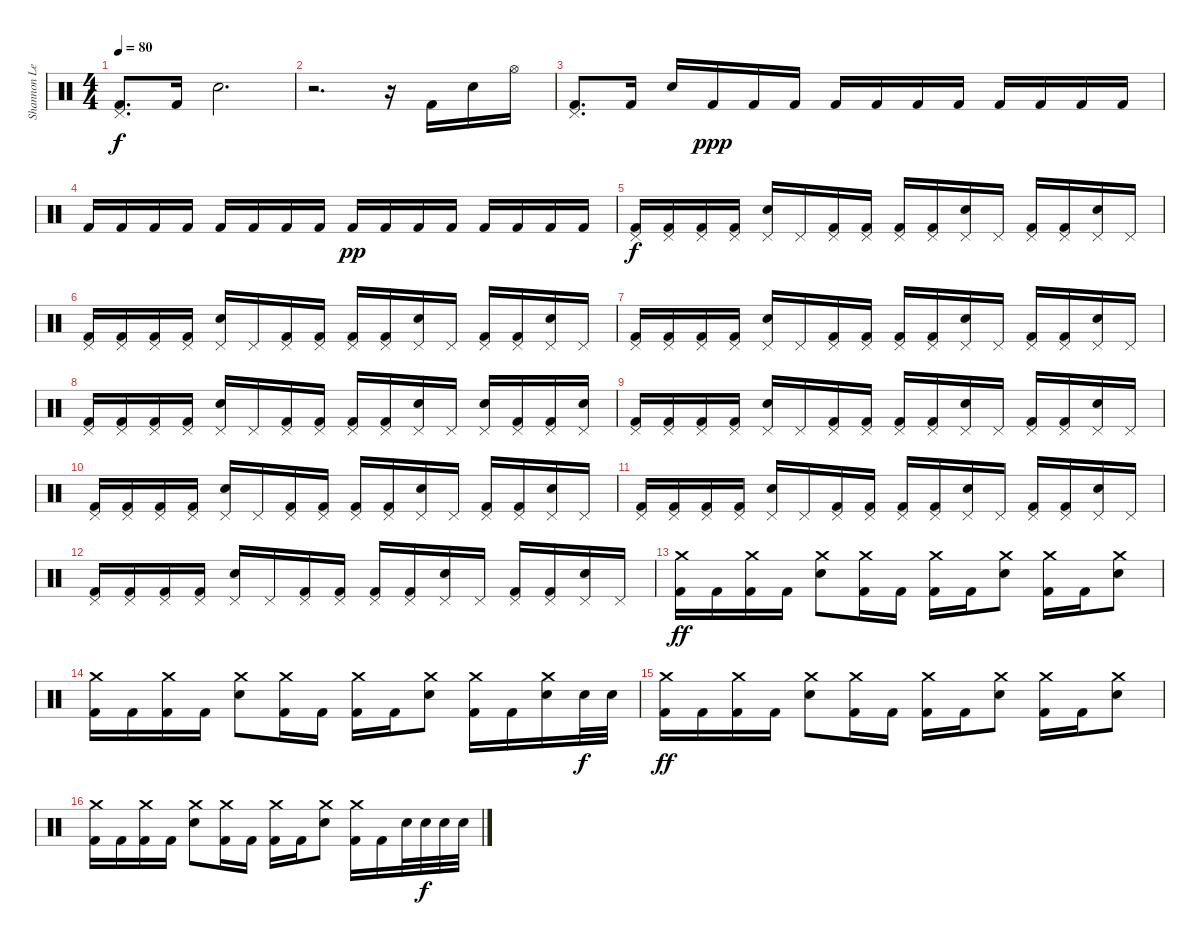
\track ("Shannon Leto - Drums" "Shannon Le") {instrument percussion}
\staff {score}
\articulation defaults
\ts (4 4)
\tempo 80
\clef neutral
\ks c
("Pedal Hi-Hat (hit)" "Kick (hit) 2").8{d dy f} "Kick (hit) 2".16 "Electric Snare (hit)".2{d} |
r.2{d} r.16 "Kick (hit) 2".16 "Electric Snare (hit)".16 "Hi-Hat (open)".16 |
("Pedal Hi-Hat (hit)" "Kick (hit) 2").8{d} "Kick (hit) 2".16 "Electric Snare (hit)".16 "Kick (hit) 2".16{dy ppp} "Kick (hit) 2".16 "Kick (hit) 2".16 "Kick (hit) 2".16 "Kick (hit) 2".16 "Kick (hit) 2".16 "Kick (hit) 2".16 "Kick (hit) 2".16 "Kick (hit) 2".16 "Kick (hit) 2".16 "Kick (hit) 2".16 |
"Kick (hit) 2".16 "Kick (hit) 2".16 "Kick (hit) 2".16 "Kick (hit) 2".16 "Kick (hit) 2".16 "Kick (hit) 2".16 "Kick (hit) 2".16 "Kick (hit) 2".16 "Kick (hit) 2".16{dy pp} "Kick (hit) 2".16 "Kick (hit) 2".16 "Kick (hit) 2".16 "Kick (hit) 2".16 "Kick (hit) 2".16 "Kick (hit) 2".16 "Kick (hit) 2".16 |
("Pedal Hi-Hat (hit)" "Kick (hit) 2").16{dy f} ("Pedal Hi-Hat (hit)" "Kick (hit) 2").16 ("Pedal Hi-Hat (hit)" "Kick (hit) 2").16 ("Pedal Hi-Hat (hit)" "Kick (hit) 2").16 ("Pedal Hi-Hat (hit)" "Electric Snare (hit)").16 "Pedal Hi-Hat (hit)".16 ("Pedal Hi-Hat (hit)" "Kick (hit) 2").16 ("Pedal Hi-Hat (hit)" "Kick (hit) 2").16 ("Pedal Hi-Hat (hit)" "Kick (hit) 2").16 ("Pedal Hi-Hat (hit)" "Kick (hit) 2").16 ("Pedal Hi-Hat (hit)" "Electric Snare (hit)").16 "Pedal Hi-Hat (hit)".16 ("Pedal Hi-Hat (hit)" "Kick (hit) 2").16 ("Pedal Hi-Hat (hit)" "Kick (hit) 2").16 ("Pedal Hi-Hat (hit)" "Electric Snare (hit)").16 "Pedal Hi-Hat (hit)".16 |
("Pedal Hi-Hat (hit)" "Kick (hit) 2").16 ("Pedal Hi-Hat (hit)" "Kick (hit) 2").16 ("Pedal Hi-Hat (hit)" "Kick (hit) 2").16 ("Pedal Hi-Hat (hit)" "Kick (hit) 2").16 ("Pedal Hi-Hat (hit)" "Electric Snare (hit)").16 "Pedal Hi-Hat (hit)".16 ("Pedal Hi-Hat (hit)" "Kick (hit) 2").16 ("Pedal Hi-Hat (hit)" "Kick (hit) 2").16 ("Pedal Hi-Hat (hit)" "Kick (hit) 2").16 ("Pedal Hi-Hat (hit)" "Kick (hit) 2").16 ("Pedal Hi-Hat (hit)" "Electric Snare (hit)").16 "Pedal Hi-Hat (hit)".16 ("Pedal Hi-Hat (hit)" "Kick (hit) 2").16 ("Pedal Hi-Hat (hit)" "Kick (hit) 2").16 ("Pedal Hi-Hat (hit)" "Electric Snare (hit)").16 "Pedal Hi-Hat (hit)".16 |
("Pedal Hi-Hat (hit)" "Kick (hit) 2").16 ("Pedal Hi-Hat (hit)" "Kick (hit) 2").16 ("Pedal Hi-Hat (hit)" "Kick (hit) 2").16 ("Pedal Hi-Hat (hit)" "Kick (hit) 2").16 ("Pedal Hi-Hat (hit)" "Electric Snare (hit)").16 "Pedal Hi-Hat (hit)".16 ("Pedal Hi-Hat (hit)" "Kick (hit) 2").16 ("Pedal Hi-Hat (hit)" "Kick (hit) 2").16 ("Pedal Hi-Hat (hit)" "Kick (hit) 2").16 ("Pedal Hi-Hat (hit)" "Kick (hit) 2").16 ("Pedal Hi-Hat (hit)" "Electric Snare (hit)").16 "Pedal Hi-Hat (hit)".16 ("Pedal Hi-Hat (hit)" "Kick (hit) 2").16 ("Pedal Hi-Hat (hit)" "Kick (hit) 2").16 ("Pedal Hi-Hat (hit)" "Electric Snare (hit)").16 "Pedal Hi-Hat (hit)".16 |
("Pedal Hi-Hat (hit)" "Kick (hit) 2").16 ("Pedal Hi-Hat (hit)" "Kick (hit) 2").16 ("Pedal Hi-Hat (hit)" "Kick (hit) 2").16 ("Pedal Hi-Hat (hit)" "Kick (hit) 2").16 ("Pedal Hi-Hat (hit)" "Electric Snare (hit)").16 "Pedal Hi-Hat (hit)".16 ("Pedal Hi-Hat (hit)" "Kick (hit) 2").16 ("Pedal Hi-Hat (hit)" "Kick (hit) 2").16 ("Pedal Hi-Hat (hit)" "Kick (hit) 2").16 ("Pedal Hi-Hat (hit)" "Kick (hit) 2").16 ("Pedal Hi-Hat (hit)" "Electric Snare (hit)").16 "Pedal Hi-Hat (hit)".16 ("Pedal Hi-Hat (hit)" "Electric Snare (hit)").16 ("Pedal Hi-Hat (hit)" "Kick (hit) 2").16 ("Pedal Hi-Hat (hit)" "Kick (hit) 2").16 ("Pedal Hi-Hat (hit)" "Electric Snare (hit)").16 |
("Pedal Hi-Hat (hit)" "Kick (hit) 2").16 ("Pedal Hi-Hat (hit)" "Kick (hit) 2").16 ("Pedal Hi-Hat (hit)" "Kick (hit) 2").16 ("Pedal Hi-Hat (hit)" "Kick (hit) 2").16 ("Pedal Hi-Hat (hit)" "Electric Snare (hit)").16 "Pedal Hi-Hat (hit)".16 ("Pedal Hi-Hat (hit)" "Kick (hit) 2").16 ("Pedal Hi-Hat (hit)" "Kick (hit) 2").16 ("Pedal Hi-Hat (hit)" "Kick (hit) 2").16 ("Pedal Hi-Hat (hit)" "Kick (hit) 2").16 ("Pedal Hi-Hat (hit)" "Electric Snare (hit)").16 "Pedal Hi-Hat (hit)".16 ("Pedal Hi-Hat (hit)" "Kick (hit) 2").16 ("Pedal Hi-Hat (hit)" "Kick (hit) 2").16 ("Pedal Hi-Hat (hit)" "Electric Snare (hit)").16 "Pedal Hi-Hat (hit)".16 |
("Pedal Hi-Hat (hit)" "Kick (hit) 2").16 ("Pedal Hi-Hat (hit)" "Kick (hit) 2").16 ("Pedal Hi-Hat (hit)" "Kick (hit) 2").16 ("Pedal Hi-Hat (hit)" "Kick (hit) 2").16 ("Pedal Hi-Hat (hit)" "Electric Snare (hit)").16 "Pedal Hi-Hat (hit)".16 ("Pedal Hi-Hat (hit)" "Kick (hit) 2").16 ("Pedal Hi-Hat (hit)" "Kick (hit) 2").16 ("Pedal Hi-Hat (hit)" "Kick (hit) 2").16 ("Pedal Hi-Hat (hit)" "Kick (hit) 2").16 ("Pedal Hi-Hat (hit)" "Electric Snare (hit)").16 "Pedal Hi-Hat (hit)".16 ("Pedal Hi-Hat (hit)" "Kick (hit) 2").16 ("Pedal Hi-Hat (hit)" "Kick (hit) 2").16 ("Pedal Hi-Hat (hit)" "Electric Snare (hit)").16 "Pedal Hi-Hat (hit)".16 |
("Pedal Hi-Hat (hit)" "Kick (hit) 2").16 ("Pedal Hi-Hat (hit)" "Kick (hit) 2").16 ("Pedal Hi-Hat (hit)" "Kick (hit) 2").16 ("Pedal Hi-Hat (hit)" "Kick (hit) 2").16 ("Pedal Hi-Hat (hit)" "Electric Snare (hit)").16 "Pedal Hi-Hat (hit)".16 ("Pedal Hi-Hat (hit)" "Kick (hit) 2").16 ("Pedal Hi-Hat (hit)" "Kick (hit) 2").16 ("Pedal Hi-Hat (hit)" "Kick (hit) 2").16 ("Pedal Hi-Hat (hit)" "Kick (hit) 2").16 ("Pedal Hi-Hat (hit)" "Electric Snare (hit)").16 "Pedal Hi-Hat (hit)".16 ("Pedal Hi-Hat (hit)" "Kick (hit) 2").16 ("Pedal Hi-Hat (hit)" "Kick (hit) 2").16 ("Pedal Hi-Hat (hit)" "Electric Snare (hit)").16 "Pedal Hi-Hat (hit)".16 |
("Pedal Hi-Hat (hit)" "Kick (hit) 2").16 ("Pedal Hi-Hat (hit)" "Kick (hit) 2").16 ("Pedal Hi-Hat (hit)" "Kick (hit) 2").16 ("Pedal Hi-Hat (hit)" "Kick (hit) 2").16 ("Pedal Hi-Hat (hit)" "Electric Snare (hit)").16 "Pedal Hi-Hat (hit)".16 ("Pedal Hi-Hat (hit)" "Kick (hit) 2").16 ("Pedal Hi-Hat (hit)" "Kick (hit) 2").16 ("Pedal Hi-Hat (hit)" "Kick (hit) 2").16 ("Pedal Hi-Hat (hit)" "Kick (hit) 2").16 ("Pedal Hi-Hat (hit)" "Electric Snare (hit)").16 "Pedal Hi-Hat (hit)".16 ("Pedal Hi-Hat (hit)" "Kick (hit) 2").16 ("Pedal Hi-Hat (hit)" "Kick (hit) 2").16 ("Pedal Hi-Hat (hit)" "Electric Snare (hit)").16 "Pedal Hi-Hat (hit)".16 |
("Crash medium (hit)" "Kick (hit) 2").16{dy ff} "Kick (hit) 2".16 ("Crash medium (hit)" "Kick (hit) 2").16 "Kick (hit) 2".16 ("Crash medium (hit)" "Electric Snare (hit)").8 ("Crash medium (hit)" "Kick (hit) 2").16 "Kick (hit) 2".16 ("Crash medium (hit)" "Kick (hit) 2").16 "Kick (hit) 2".16 ("Crash medium (hit)" "Electric Snare (hit)").8 ("Crash medium (hit)" "Kick (hit) 2").16 "Kick (hit) 2".16 ("Crash medium (hit)" "Electric Snare (hit)").8 |
("Crash medium (hit)" "Kick (hit) 2").16 "Kick (hit) 2".16 ("Crash medium (hit)" "Kick (hit) 2").16 "Kick (hit) 2".16 ("Crash medium (hit)" "Electric Snare (hit)").8 ("Crash medium (hit)" "Kick (hit) 2").16 "Kick (hit) 2".16 ("Crash medium (hit)" "Kick (hit) 2").16 "Kick (hit) 2".16 ("Crash medium (hit)" "Electric Snare (hit)").8 ("Crash medium (hit)" "Kick (hit) 2").16 "Kick (hit) 2".16 ("Crash medium (hit)" "Electric Snare (hit)").16 "Electric Snare (hit)".32{dy f} "Electric Snare (hit)".32 |
("Crash medium (hit)" "Kick (hit) 2").16{dy ff} "Kick (hit) 2".16 ("Crash medium (hit)" "Kick (hit) 2").16 "Kick (hit) 2".16 ("Crash medium (hit)" "Electric Snare (hit)").8 ("Crash medium (hit)" "Kick (hit) 2").16 "Kick (hit) 2".16 ("Crash medium (hit)" "Kick (hit) 2").16 "Kick (hit) 2".16 ("Crash medium (hit)" "Electric Snare (hit)").8 ("Crash medium (hit)" "Kick (hit) 2").16 "Kick (hit) 2".16 ("Crash medium (hit)" "Electric Snare (hit)").8 |
("Crash medium (hit)" "Kick (hit) 2").16 "Kick (hit) 2".16 ("Crash medium (hit)" "Kick (hit) 2").16 "Kick (hit) 2".16 ("Crash medium (hit)" "Electric Snare (hit)").8 ("Crash medium (hit)" "Kick (hit) 2").16 "Kick (hit) 2".16 ("Crash medium (hit)" "Kick (hit) 2").16 "Kick (hit) 2".16 ("Crash medium (hit)" "Electric Snare (hit)").8 ("Crash medium (hit)" "Kick (hit) 2").16 "Kick (hit) 2".16 "Electric Snare (hit)".32 "Electric Snare (hit)".32{dy f} "Electric Snare (hit)".32 "Electric Snare (hit)".32
